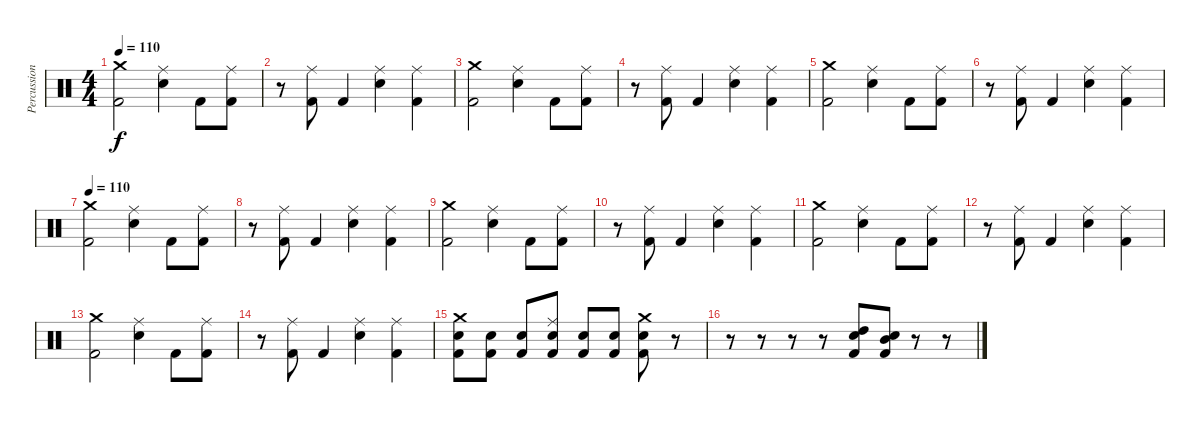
\track ("Percussion" "Percussion") {instrument percussion}
\staff {score}
\articulation defaults
\ts (4 4)
\tempo 110
\clef neutral
\ks c
("Crash medium (hit)" "Kick (hit) 2").2{dy f} ("Ride (middle)" "Electric Snare (hit)").4 "Kick (hit) 2".8 ("Ride (middle)" "Kick (hit) 2").8 |
r.8 ("Ride (middle)" "Kick (hit) 2").8 "Kick (hit) 2".4 ("Ride (middle)" "Electric Snare (hit)").4 ("Ride (middle)" "Kick (hit) 2").4 |
("Crash medium (hit)" "Kick (hit) 2").2 ("Ride (middle)" "Electric Snare (hit)").4 "Kick (hit) 2".8 ("Ride (middle)" "Kick (hit) 2").8 |
r.8 ("Ride (middle)" "Kick (hit) 2").8 "Kick (hit) 2".4 ("Ride (middle)" "Electric Snare (hit)").4 ("Ride (middle)" "Kick (hit) 2").4 |
("Crash medium (hit)" "Kick (hit) 2").2 ("Ride (middle)" "Electric Snare (hit)").4 "Kick (hit) 2".8 ("Ride (middle)" "Kick (hit) 2").8 |
r.8 ("Ride (middle)" "Kick (hit) 2").8 "Kick (hit) 2".4 ("Ride (middle)" "Electric Snare (hit)").4 ("Ride (middle)" "Kick (hit) 2").4 |
\tempo 110
("Crash medium (hit)" "Kick (hit) 2").2 ("Ride (middle)" "Electric Snare (hit)").4 "Kick (hit) 2".8 ("Ride (middle)" "Kick (hit) 2").8 |
r.8 ("Ride (middle)" "Kick (hit) 2").8 "Kick (hit) 2".4 ("Ride (middle)" "Electric Snare (hit)").4 ("Ride (middle)" "Kick (hit) 2").4 |
("Crash medium (hit)" "Kick (hit) 2").2 ("Ride (middle)" "Electric Snare (hit)").4 "Kick (hit) 2".8 ("Ride (middle)" "Kick (hit) 2").8 |
r.8 ("Ride (middle)" "Kick (hit) 2").8 "Kick (hit) 2".4 ("Ride (middle)" "Electric Snare (hit)").4 ("Ride (middle)" "Kick (hit) 2").4 |
("Crash medium (hit)" "Kick (hit) 2").2 ("Ride (middle)" "Electric Snare (hit)").4 "Kick (hit) 2".8 ("Ride (middle)" "Kick (hit) 2").8 |
r.8 ("Ride (middle)" "Kick (hit) 2").8 "Kick (hit) 2".4 ("Ride (middle)" "Electric Snare (hit)").4 ("Ride (middle)" "Kick (hit) 2").4 |
("Crash medium (hit)" "Kick (hit) 2").2 ("Ride (middle)" "Electric Snare (hit)").4 "Kick (hit) 2".8 ("Ride (middle)" "Kick (hit) 2").8 |
r.8 ("Ride (middle)" "Kick (hit) 2").8 "Kick (hit) 2".4 ("Ride (middle)" "Electric Snare (hit)").4 ("Ride (middle)" "Kick (hit) 2").4 |
("Crash medium (hit)" "Electric Snare (hit)" "Kick (hit) 2").8 ("Kick (hit) 2" "Electric Snare (hit)").8 ("Electric Snare (hit)" "Kick (hit) 2").8 ("Ride (middle)" "Electric Snare (hit)" "Kick (hit) 2").8 ("Electric Snare (hit)" "Kick (hit) 2").8 ("Electric Snare (hit)" "Kick (hit) 2").8 ("Crash medium (hit)" "Electric Snare (hit)" "Kick (hit) 2").8 r.8 |
r.8 r.8 r.8 r.8 ("Electric Snare (hit)" "High Tom (hit)" "Kick (hit) 2").8{bd 60} ("Electric Snare (hit)" "Mid Tom (hit)" "Kick (hit) 2").8{bd 60} r.8 r.8
